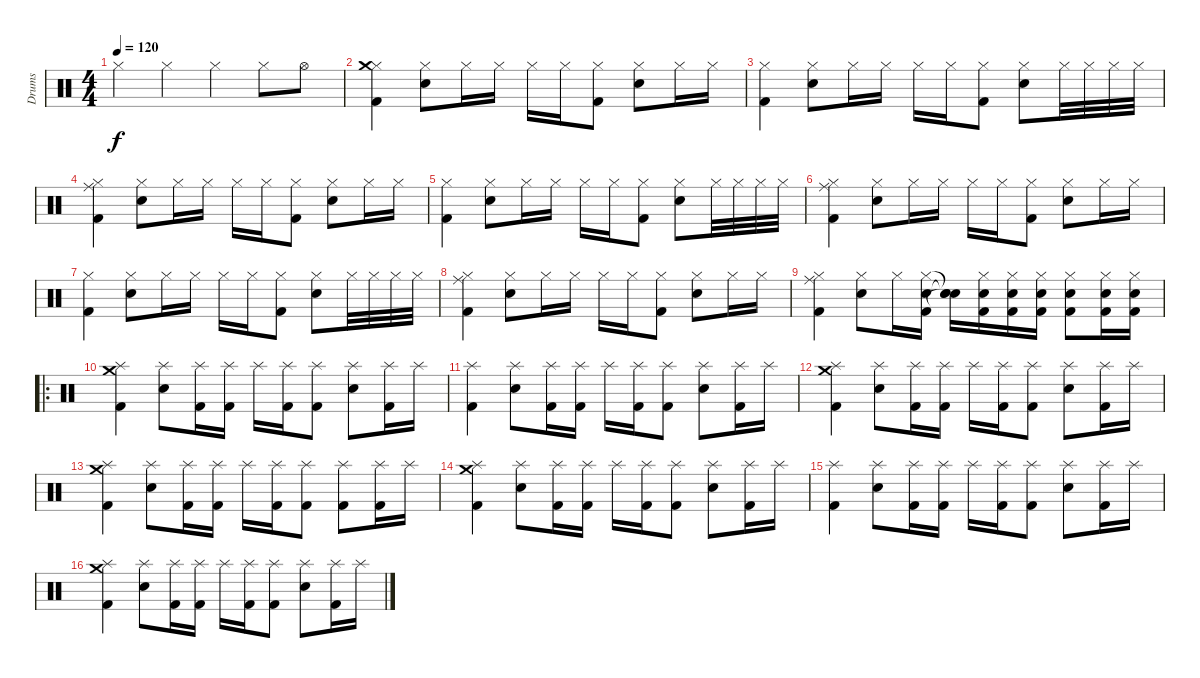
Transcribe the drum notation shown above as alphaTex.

\track ("Drums" "Drums") {instrument percussion}
\staff {score}
\articulation defaults
\ts (4 4)
\tempo 120
\clef neutral
\ks c "Hi-Hat (closed)".4{dy f} "Hi-Hat (closed)".4 "Hi-Hat (closed)".4 "Hi-Hat (closed)".8 "Hi-Hat (open)".8
|
("Kick (hit) 2" "Hi-Hat (closed)" "Crash medium (hit)").4 ("Snare (hit) 2" "Hi-Hat (closed)").8 "Hi-Hat (closed)".16 "Hi-Hat (closed)".16 "Hi-Hat (closed)".16 "Hi-Hat (closed)".16 ("Kick (hit) 2" "Hi-Hat (closed)").8 ("Snare (hit) 2" "Hi-Hat (closed)").8 "Hi-Hat (closed)".16 "Hi-Hat (closed)".16 |
("Kick (hit) 2" "Hi-Hat (closed)").4 ("Snare (hit) 2" "Hi-Hat (closed)").8 "Hi-Hat (closed)".16 "Hi-Hat (closed)".16 "Hi-Hat (closed)".16 "Hi-Hat (closed)".16 ("Kick (hit) 2" "Hi-Hat (closed)").8 ("Snare (hit) 2" "Hi-Hat (closed)").8 "Hi-Hat (closed)".32 "Hi-Hat (closed)".32 "Hi-Hat (closed)".32 "Hi-Hat (closed)".32 |
("Kick (hit) 2" "Hi-Hat (closed)" "Ride (middle)").4 ("Snare (hit) 2" "Hi-Hat (closed)").8 "Hi-Hat (closed)".16 "Hi-Hat (closed)".16 "Hi-Hat (closed)".16 "Hi-Hat (closed)".16 ("Kick (hit) 2" "Hi-Hat (closed)").8 ("Snare (hit) 2" "Hi-Hat (closed)").8 "Hi-Hat (closed)".16 "Hi-Hat (closed)".16 |
("Kick (hit) 2" "Hi-Hat (closed)").4 ("Snare (hit) 2" "Hi-Hat (closed)").8 "Hi-Hat (closed)".16 "Hi-Hat (closed)".16 "Hi-Hat (closed)".16 "Hi-Hat (closed)".16 ("Kick (hit) 2" "Hi-Hat (closed)").8 ("Snare (hit) 2" "Hi-Hat (closed)").8 "Hi-Hat (closed)".32 "Hi-Hat (closed)".32 "Hi-Hat (closed)".32 "Hi-Hat (closed)".32 |
("Kick (hit) 2" "Hi-Hat (closed)" "Ride (middle)").4 ("Snare (hit) 2" "Hi-Hat (closed)").8 "Hi-Hat (closed)".16 "Hi-Hat (closed)".16 "Hi-Hat (closed)".16 "Hi-Hat (closed)".16 ("Kick (hit) 2" "Hi-Hat (closed)").8 ("Snare (hit) 2" "Hi-Hat (closed)").8 "Hi-Hat (closed)".16 "Hi-Hat (closed)".16 |
("Kick (hit) 2" "Hi-Hat (closed)").4 ("Snare (hit) 2" "Hi-Hat (closed)").8 "Hi-Hat (closed)".16 "Hi-Hat (closed)".16 "Hi-Hat (closed)".16 "Hi-Hat (closed)".16 ("Kick (hit) 2" "Hi-Hat (closed)").8 ("Snare (hit) 2" "Hi-Hat (closed)").8 "Hi-Hat (closed)".32 "Hi-Hat (closed)".32 "Hi-Hat (closed)".32 "Hi-Hat (closed)".32 |
("Kick (hit) 2" "Hi-Hat (closed)" "Ride (middle)").4 ("Snare (hit) 2" "Hi-Hat (closed)").8 "Hi-Hat (closed)".16 "Hi-Hat (closed)".16 "Hi-Hat (closed)".16 "Hi-Hat (closed)".16 ("Kick (hit) 2" "Hi-Hat (closed)").8 ("Snare (hit) 2" "Hi-Hat (closed)").8 "Hi-Hat (closed)".16 "Hi-Hat (closed)".16 |
("Kick (hit) 2" "Hi-Hat (closed)" "Ride (middle)").4 ("Snare (hit) 2" "Hi-Hat (closed)").8 "Hi-Hat (closed)".16 ("Kick (hit) 2" "Snare (hit) 2" "Hi-Hat (closed)").16 ("Snare (hit)"{t} "Snare (hit)"{t} "Snare (hit)"{t}).16 ("Kick (hit) 2" "Snare (hit) 2" "Hi-Hat (closed)").16 ("Kick (hit) 2" "Snare (hit) 2" "Hi-Hat (closed)").16 ("Kick (hit) 2" "Snare (hit) 2" "Hi-Hat (closed)").16 ("Kick (hit) 2" "Snare (hit) 2" "Hi-Hat (closed)").8 ("Kick (hit) 2" "Snare (hit) 2" "Hi-Hat (closed)").16 ("Kick (hit) 2" "Snare (hit) 2" "Hi-Hat (closed)").16 |
\ro
("Kick (hit) 2" "Splash (hit)" "Crash medium (hit)").4 ("Snare (hit) 2" "Splash (hit)").8 ("Kick (hit) 2" "Splash (hit)").16 ("Kick (hit) 2" "Splash (hit)").16 "Splash (hit)".16 ("Kick (hit) 2" "Splash (hit)").16 ("Kick (hit) 2" "Splash (hit)").8 ("Snare (hit) 2" "Splash (hit)").8 ("Kick (hit) 2" "Splash (hit)").16 "Splash (hit)".16 |
("Kick (hit) 2" "Splash (hit)").4 ("Snare (hit) 2" "Splash (hit)").8 ("Kick (hit) 2" "Splash (hit)").16 ("Kick (hit) 2" "Splash (hit)").16 "Splash (hit)".16 ("Kick (hit) 2" "Splash (hit)").16 ("Kick (hit) 2" "Splash (hit)").8 ("Snare (hit) 2" "Splash (hit)").8 ("Kick (hit) 2" "Splash (hit)").16 "Splash (hit)".16 |
("Kick (hit) 2" "Splash (hit)" "Crash medium (hit)").4 ("Snare (hit) 2" "Splash (hit)").8 ("Kick (hit) 2" "Splash (hit)").16 ("Kick (hit) 2" "Splash (hit)").16 "Splash (hit)".16 ("Kick (hit) 2" "Splash (hit)").16 ("Kick (hit) 2" "Splash (hit)").8 ("Snare (hit) 2" "Splash (hit)").8 ("Kick (hit) 2" "Splash (hit)").16 "Splash (hit)".16 |
("Kick (hit) 2" "Splash (hit)" "Crash medium (hit)").4 ("Snare (hit) 2" "Splash (hit)").8 ("Kick (hit) 2" "Splash (hit)").16 ("Kick (hit) 2" "Splash (hit)").16 "Splash (hit)".16 ("Kick (hit) 2" "Splash (hit)").16 ("Kick (hit) 2" "Splash (hit)").8 ("Kick (hit) 2" "Splash (hit)").8 ("Kick (hit) 2" "Splash (hit)").16 "Splash (hit)".16 |
("Kick (hit) 2" "Splash (hit)" "Crash medium (hit)").4 ("Snare (hit) 2" "Splash (hit)").8 ("Kick (hit) 2" "Splash (hit)").16 ("Kick (hit) 2" "Splash (hit)").16 "Splash (hit)".16 ("Kick (hit) 2" "Splash (hit)").16 ("Kick (hit) 2" "Splash (hit)").8 ("Snare (hit) 2" "Splash (hit)").8 ("Kick (hit) 2" "Splash (hit)").16 "Splash (hit)".16 |
("Kick (hit) 2" "Splash (hit)").4 ("Snare (hit) 2" "Splash (hit)").8 ("Kick (hit) 2" "Splash (hit)").16 ("Kick (hit) 2" "Splash (hit)").16 "Splash (hit)".16 ("Kick (hit) 2" "Splash (hit)").16 ("Kick (hit) 2" "Splash (hit)").8 ("Snare (hit) 2" "Splash (hit)").8 ("Kick (hit) 2" "Splash (hit)").16 "Splash (hit)".16 |
("Kick (hit) 2" "Splash (hit)" "Crash medium (hit)").4 ("Snare (hit) 2" "Splash (hit)").8 ("Kick (hit) 2" "Splash (hit)").16 ("Kick (hit) 2" "Splash (hit)").16 "Splash (hit)".16 ("Kick (hit) 2" "Splash (hit)").16 ("Kick (hit) 2" "Splash (hit)").8 ("Snare (hit) 2" "Splash (hit)").8 ("Kick (hit) 2" "Splash (hit)").16 "Splash (hit)".16
